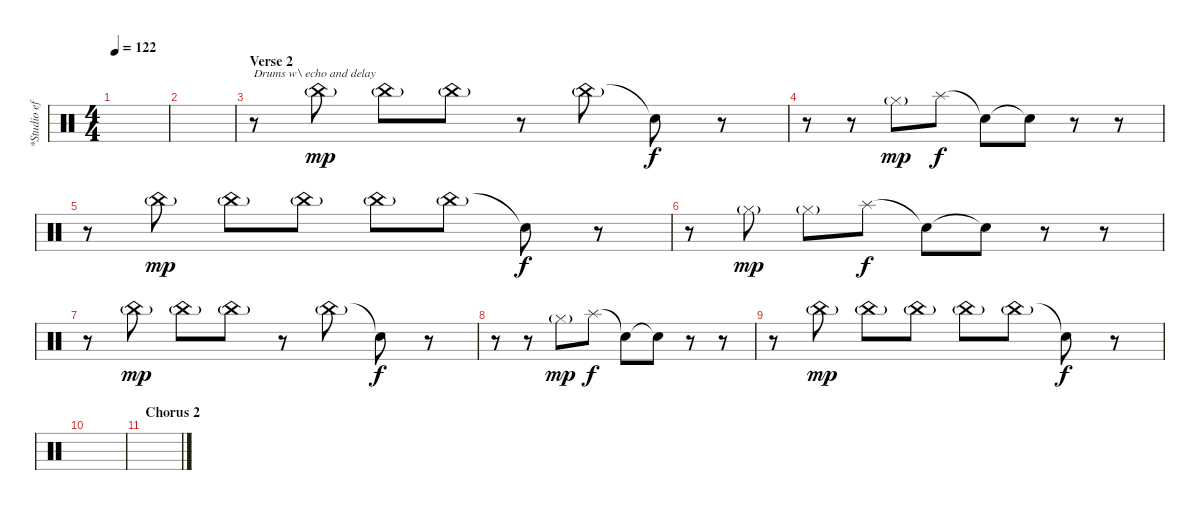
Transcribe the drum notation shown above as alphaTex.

\track ("*Studio effects (Sampled drums)" "*Studio ef") {instrument percussion}
\staff {score}
\articulation defaults
\ts (4 4)
\tempo 122
\clef neutral
\ks c
|
|
\section ("" "Verse 2")
r.8{txt "Drums w\\ echo and delay"} "China (hit)"{g}.8{dy mp balance 4} "China (hit)"{g}.8{balance 4} "China (hit)"{g}.8{balance 4} r.8 "China (hit)"{g}.8{balance 4} "Snare (hit)"{t}.8{dy f} r.8 |
r.8 r.8 "Hi-Hat (closed)"{g}.8{dy mp} "Splash (hit)".8{dy f balance 12} "Snare (hit)"{t}.8 "Snare (hit)"{t}.8 r.8 r.8 |
r.8 "China (hit)"{g}.8{dy mp balance 4} "China (hit)"{g}.8{balance 4} "China (hit)"{g}.8{balance 4} "China (hit)"{g}.8{balance 4} "China (hit)"{g}.8{balance 4} "Snare (hit)"{t}.8{dy f} r.8 |
r.8 "Hi-Hat (closed)"{g}.8{dy mp} "Hi-Hat (closed)"{g}.8 "Splash (hit)".8{dy f balance 12} "Snare (hit)"{t}.8 "Snare (hit)"{t}.8 r.8 r.8 |
r.8 "China (hit)"{g}.8{dy mp balance 4} "China (hit)"{g}.8{balance 4} "China (hit)"{g}.8{balance 4} r.8 "China (hit)"{g}.8{balance 4} "Snare (hit)"{t}.8{dy f} r.8 |
r.8 r.8 "Hi-Hat (closed)"{g}.8{dy mp} "Splash (hit)".8{dy f balance 12} "Snare (hit)"{t}.8 "Snare (hit)"{t}.8 r.8 r.8 |
r.8 "China (hit)"{g}.8{dy mp balance 4} "China (hit)"{g}.8{balance 4} "China (hit)"{g}.8{balance 4} "China (hit)"{g}.8{balance 4} "China (hit)"{g}.8{balance 4} "Snare (hit)"{t}.8{dy f} r.8 |
|
\section ("" "Chorus 2")
